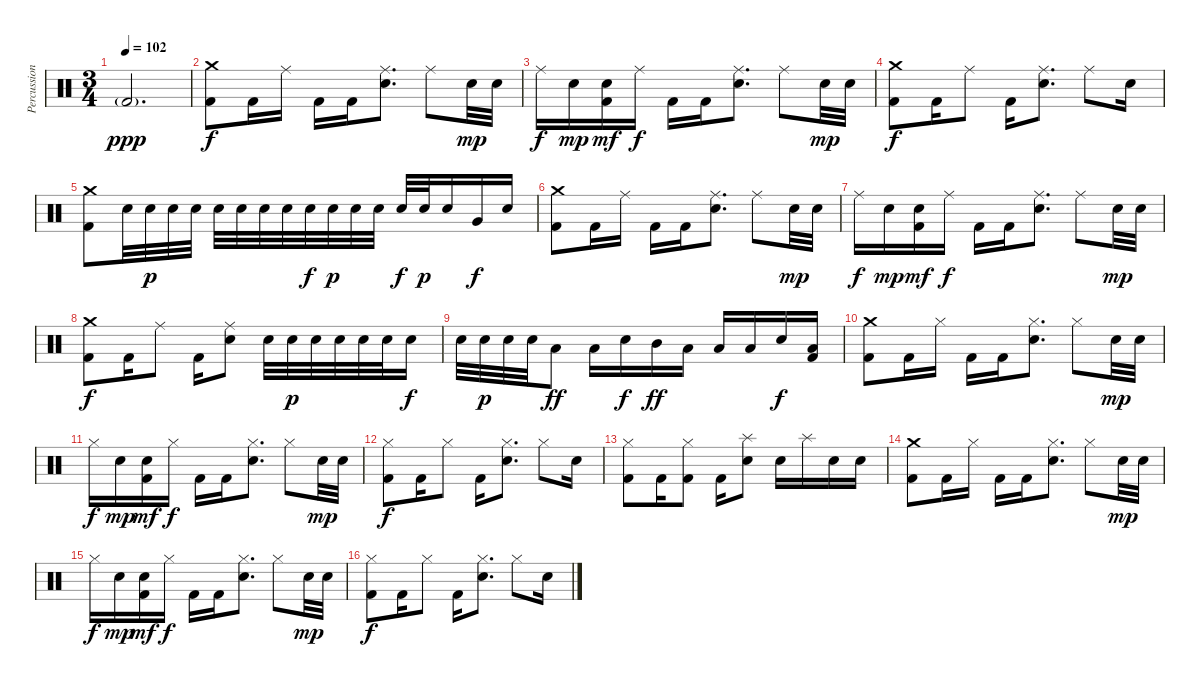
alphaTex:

\track ("Percussion" "Percussion") {instrument percussion}
\staff {score}
\articulation defaults
\ts (3 4)
\tempo 102
\clef neutral
\ks c "Kick (hit) 2"{g}.2{d dy ppp}
|
("Crash medium (hit)" "Kick (hit) 2").8{dy f} "Kick (hit) 2".16 "Ride (middle)".16 "Kick (hit) 2".16 "Kick (hit) 2".16 ("Ride (middle)" "Electric Snare (hit)").8{d} "Ride (middle)".8 "Electric Snare (hit)".32{dy mp} "Electric Snare (hit)".32 |
"Ride (middle)".16{dy f} "Electric Snare (hit)".16{dy mp} ("Electric Snare (hit)" "Kick (hit) 2").16{dy mf} "Ride (middle)".16{dy f} "Kick (hit) 2".16 "Kick (hit) 2".16 ("Ride (middle)" "Electric Snare (hit)").8{d} "Ride (middle)".8 "Electric Snare (hit)".32{dy mp} "Electric Snare (hit)".32 |
("Crash medium (hit)" "Kick (hit) 2").8{dy f} "Kick (hit) 2".16 "Ride (middle)".8 "Kick (hit) 2".16 ("Ride (middle)" "Electric Snare (hit)").8{d} "Ride (middle)".8 "Electric Snare (hit)".16 |
("Crash medium (hit)" "Kick (hit) 2").8 "Electric Snare (hit)".32 "Electric Snare (hit)".32{dy p} "Electric Snare (hit)".32 "Electric Snare (hit)".32 "Electric Snare (hit)".32 "Electric Snare (hit)".32 "Electric Snare (hit)".32 "Electric Snare (hit)".32 "Electric Snare (hit)".32{dy f} "Electric Snare (hit)".32{dy p} "Electric Snare (hit)".32 "Electric Snare (hit)".32 "Electric Snare (hit)".32{dy f} "Electric Snare (hit)".32{dy p} "Electric Snare (hit)".16 "Very Low Tom (hit)".16{dy f} "Electric Snare (hit)".16 |
("Crash medium (hit)" "Kick (hit) 2").8 "Kick (hit) 2".16 "Ride (middle)".16 "Kick (hit) 2".16 "Kick (hit) 2".16 ("Ride (middle)" "Electric Snare (hit)").8{d} "Ride (middle)".8 "Electric Snare (hit)".32{dy mp} "Electric Snare (hit)".32 |
"Ride (middle)".16{dy f} "Electric Snare (hit)".16{dy mp} ("Electric Snare (hit)" "Kick (hit) 2").16{dy mf} "Ride (middle)".16{dy f} "Kick (hit) 2".16 "Kick (hit) 2".16 ("Ride (middle)" "Electric Snare (hit)").8{d} "Ride (middle)".8 "Electric Snare (hit)".32{dy mp} "Electric Snare (hit)".32 |
("Crash medium (hit)" "Kick (hit) 2").8{dy f} "Kick (hit) 2".16 "Ride (middle)".8 "Kick (hit) 2".16 ("Ride (middle)" "Electric Snare (hit)").8 "Electric Snare (hit)".32 "Electric Snare (hit)".32{dy p} "Electric Snare (hit)".32 "Electric Snare (hit)".32 "Electric Snare (hit)".32 "Electric Snare (hit)".32 "Electric Snare (hit)".16{dy f} |
"Electric Snare (hit)".32 "Electric Snare (hit)".32{dy p} "Electric Snare (hit)".32 "Electric Snare (hit)".32 "Low Tom (hit)".8{dy ff} "Low Tom (hit)".16 "Electric Snare (hit)".16{dy f} "Mid Tom (hit)".16{dy ff} "Low Tom (hit)".16 "Low Tom (hit)".16 "Low Tom (hit)".16 "Electric Snare (hit)".16{dy f} ("Low Floor Tom (hit)" "Kick (hit) 2").16 |
("Crash medium (hit)" "Kick (hit) 2").8 "Kick (hit) 2".16 "Hi-Hat (closed)".16 "Kick (hit) 2".16 "Kick (hit) 2".16 ("Hi-Hat (closed)" "Electric Snare (hit)").8{d} "Hi-Hat (closed)".8 "Electric Snare (hit)".32{dy mp} "Electric Snare (hit)".32 |
"Hi-Hat (closed)".16{dy f} "Electric Snare (hit)".16{dy mp} ("Electric Snare (hit)" "Kick (hit) 2").16{dy mf} "Hi-Hat (closed)".16{dy f} "Kick (hit) 2".16 "Kick (hit) 2".16 ("Hi-Hat (closed)" "Electric Snare (hit)").8{d} "Hi-Hat (closed)".8 "Electric Snare (hit)".32{dy mp} "Electric Snare (hit)".32 |
("Hi-Hat (closed)" "Kick (hit) 2").8{dy f} "Kick (hit) 2".16 "Hi-Hat (closed)".8 "Kick (hit) 2".16 ("Hi-Hat (closed)" "Electric Snare (hit)").8{d} "Hi-Hat (closed)".8 "Electric Snare (hit)".16 |
("Hi-Hat (closed)" "Kick (hit) 2").8 "Kick (hit) 2".16 ("Hi-Hat (closed)" "Kick (hit) 2").8 "Kick (hit) 2".16 ("Splash (hit)" "Electric Snare (hit)").8 "Electric Snare (hit)".16 "Splash (hit)".16 "Electric Snare (hit)".16 "Electric Snare (hit)".16 |
("Crash medium (hit)" "Kick (hit) 2").8 "Kick (hit) 2".16 "Hi-Hat (closed)".16 "Kick (hit) 2".16 "Kick (hit) 2".16 ("Hi-Hat (closed)" "Electric Snare (hit)").8{d} "Hi-Hat (closed)".8 "Electric Snare (hit)".32{dy mp} "Electric Snare (hit)".32 |
"Hi-Hat (closed)".16{dy f} "Electric Snare (hit)".16{dy mp} ("Electric Snare (hit)" "Kick (hit) 2").16{dy mf} "Hi-Hat (closed)".16{dy f} "Kick (hit) 2".16 "Kick (hit) 2".16 ("Hi-Hat (closed)" "Electric Snare (hit)").8{d} "Hi-Hat (closed)".8 "Electric Snare (hit)".32{dy mp} "Electric Snare (hit)".32 |
("Hi-Hat (closed)" "Kick (hit) 2").8{dy f} "Kick (hit) 2".16 "Hi-Hat (closed)".8 "Kick (hit) 2".16 ("Hi-Hat (closed)" "Electric Snare (hit)").8{d} "Hi-Hat (closed)".8 "Electric Snare (hit)".16
